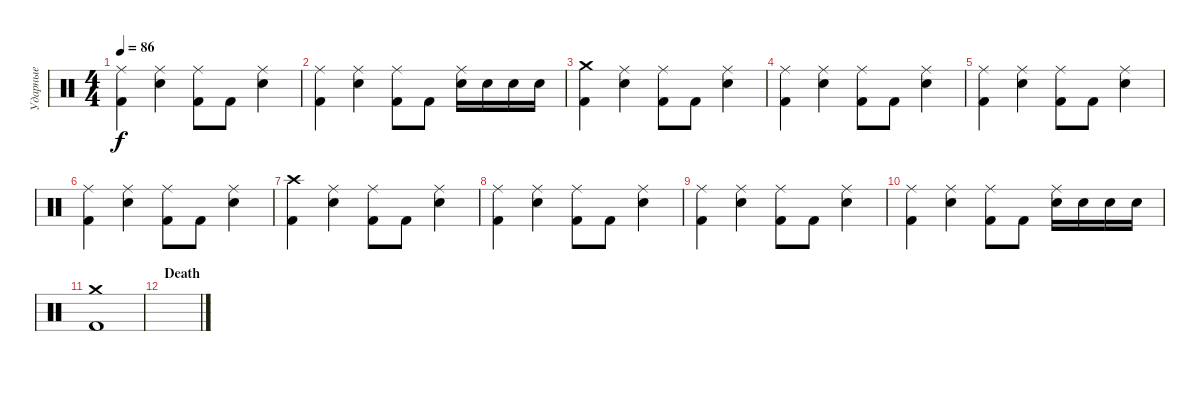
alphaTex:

\track ("Ударные" "Ударные") {instrument percussion}
\staff {score}
\articulation defaults
\ts (4 4)
\tempo 86
\clef neutral
\ks c
("Ride (middle)" "Kick (hit) 2").4{dy f} ("Ride (middle)" "Electric Snare (hit)").4 ("Ride (middle)" "Kick (hit) 2").8 "Kick (hit) 2".8 ("Ride (middle)" "Electric Snare (hit)").4 |
("Ride (middle)" "Kick (hit) 2").4 ("Ride (middle)" "Electric Snare (hit)").4 ("Ride (middle)" "Kick (hit) 2").8 "Kick (hit) 2".8 ("Ride (middle)" "Electric Snare (hit)").16 "Electric Snare (hit)".16 "Electric Snare (hit)".16 "Electric Snare (hit)".16 |
("Crash medium (hit)" "Kick (hit) 2").4 ("Ride (middle)" "Electric Snare (hit)").4 ("Ride (middle)" "Kick (hit) 2").8 "Kick (hit) 2".8 ("Ride (middle)" "Electric Snare (hit)").4 |
("Ride (middle)" "Kick (hit) 2").4 ("Ride (middle)" "Electric Snare (hit)").4 ("Ride (middle)" "Kick (hit) 2").8 "Kick (hit) 2".8 ("Ride (middle)" "Electric Snare (hit)").4 |
("Ride (middle)" "Kick (hit) 2").4 ("Ride (middle)" "Electric Snare (hit)").4 ("Ride (middle)" "Kick (hit) 2").8 "Kick (hit) 2".8 ("Ride (middle)" "Electric Snare (hit)").4 |
("Ride (middle)" "Kick (hit) 2").4 ("Ride (middle)" "Electric Snare (hit)").4 ("Ride (middle)" "Kick (hit) 2").8 "Kick (hit) 2".8 ("Ride (middle)" "Electric Snare (hit)").4 |
("Crash high (hit)" "Kick (hit) 2").4 ("Ride (middle)" "Electric Snare (hit)").4 ("Ride (middle)" "Kick (hit) 2").8 "Kick (hit) 2".8 ("Ride (middle)" "Electric Snare (hit)").4 |
("Ride (middle)" "Kick (hit) 2").4 ("Ride (middle)" "Electric Snare (hit)").4 ("Ride (middle)" "Kick (hit) 2").8 "Kick (hit) 2".8 ("Ride (middle)" "Electric Snare (hit)").4 |
("Ride (middle)" "Kick (hit) 2").4 ("Ride (middle)" "Electric Snare (hit)").4 ("Ride (middle)" "Kick (hit) 2").8 "Kick (hit) 2".8 ("Ride (middle)" "Electric Snare (hit)").4 |
("Ride (middle)" "Kick (hit) 2").4 ("Ride (middle)" "Electric Snare (hit)").4 ("Ride (middle)" "Kick (hit) 2").8 "Kick (hit) 2".8 ("Ride (middle)" "Electric Snare (hit)").16 "Electric Snare (hit)".16 "Electric Snare (hit)".16 "Electric Snare (hit)".16 |
("Crash medium (hit)" "Kick (hit) 2").1 |
\section ("" "Death")
